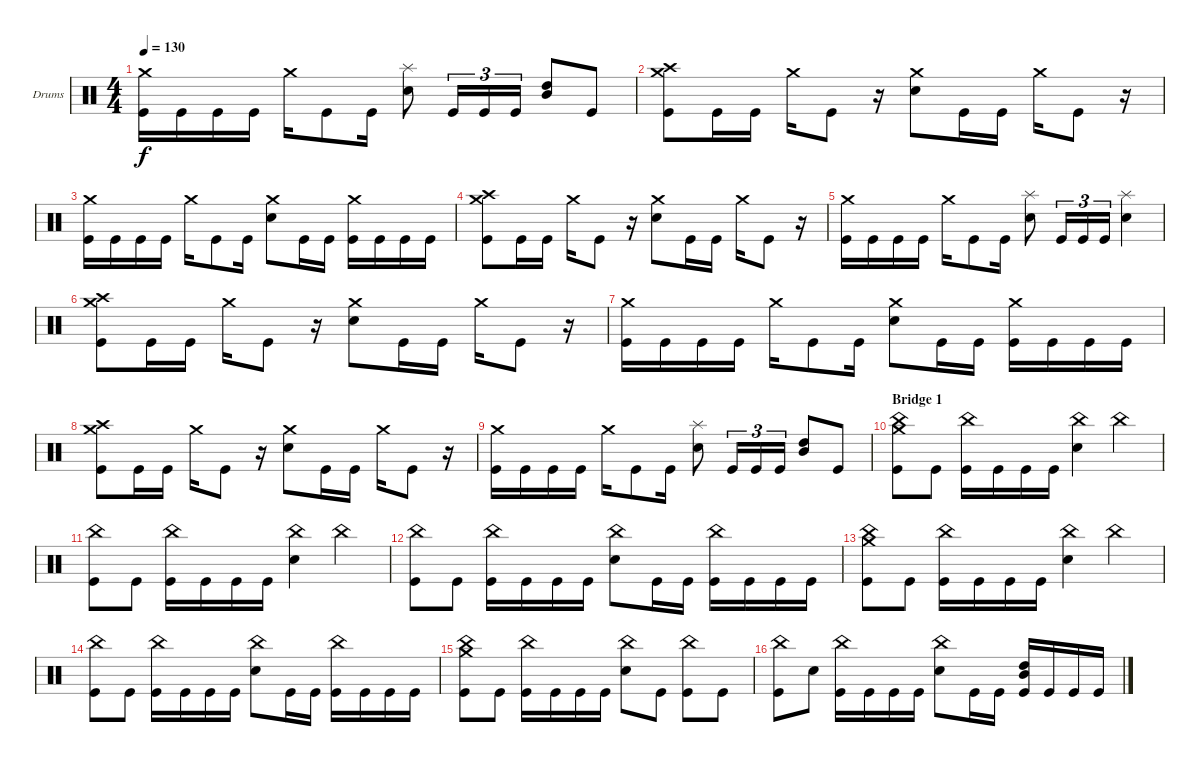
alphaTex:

\bracketExtendMode groupsimilarinstruments
\firstSystemTrackNameOrientation horizontal
\otherSystemsTrackNameOrientation horizontal
\track ("Drumkit" "Drums") {instrument percussion}
\staff {score}
\articulation defaults
\ts (4 4)
\tempo 130
\clef neutral
\ks c
("Kick (hit)" "Crash medium (hit)").16{dy f} "Kick (hit)".16 "Kick (hit)".16 "Kick (hit)".16 "Crash medium (hit)".16 "Kick (hit)".8 "Kick (hit)".16 ("Snare (hit) 2" "Splash (hit)").8 "Kick (hit)".16{tu (3 2)} "Kick (hit)".16{tu (3 2)} "Kick (hit)".16{tu (3 2)} ("High Tom (hit)" "Mid Tom (hit)").8 "Kick (hit)".8 |
("Kick (hit)" "Crash high (hit)" "Crash medium (hit)").8 "Kick (hit)".16 "Kick (hit)".16 "Crash medium (hit)".16 "Kick (hit)".8 r.16 ("Crash medium (hit)" "Snare (hit) 2").8 "Kick (hit)".16 "Kick (hit)".16 "Crash medium (hit)".16 "Kick (hit)".8 r.16 |
("Kick (hit)" "Crash medium (hit)").16 "Kick (hit)".16 "Kick (hit)".16 "Kick (hit)".16 "Crash medium (hit)".16 "Kick (hit)".8 "Kick (hit)".16 ("Snare (hit) 2" "Crash medium (hit)").8 "Kick (hit)".16 "Kick (hit)".16 ("Kick (hit)" "Crash medium (hit)").16 "Kick (hit)".16 "Kick (hit)".16 "Kick (hit)".16 |
("Kick (hit)" "Crash high (hit)" "Crash medium (hit)").8 "Kick (hit)".16 "Kick (hit)".16 "Crash medium (hit)".16 "Kick (hit)".8 r.16 ("Crash medium (hit)" "Snare (hit) 2").8 "Kick (hit)".16 "Kick (hit)".16 "Crash medium (hit)".16 "Kick (hit)".8 r.16 |
("Kick (hit)" "Crash medium (hit)").16 "Kick (hit)".16 "Kick (hit)".16 "Kick (hit)".16 "Crash medium (hit)".16 "Kick (hit)".8 "Kick (hit)".16 ("Snare (hit) 2" "Splash (hit)").8 "Kick (hit)".16{tu (3 2)} "Kick (hit)".16{tu (3 2)} "Kick (hit)".16{tu (3 2)} ("Snare (hit) 2" "Splash (hit)").4 |
("Kick (hit)" "Crash high (hit)" "Crash medium (hit)").8 "Kick (hit)".16 "Kick (hit)".16 "Crash medium (hit)".16 "Kick (hit)".8 r.16 ("Crash medium (hit)" "Snare (hit) 2").8 "Kick (hit)".16 "Kick (hit)".16 "Crash medium (hit)".16 "Kick (hit)".8 r.16 |
("Kick (hit)" "Crash medium (hit)").16 "Kick (hit)".16 "Kick (hit)".16 "Kick (hit)".16 "Crash medium (hit)".16 "Kick (hit)".8 "Kick (hit)".16 ("Snare (hit) 2" "Crash medium (hit)").8 "Kick (hit)".16 "Kick (hit)".16 ("Kick (hit)" "Crash medium (hit)").16 "Kick (hit)".16 "Kick (hit)".16 "Kick (hit)".16 |
("Kick (hit)" "Crash high (hit)" "Crash medium (hit)").8 "Kick (hit)".16 "Kick (hit)".16 "Crash medium (hit)".16 "Kick (hit)".8 r.16 ("Crash medium (hit)" "Snare (hit) 2").8 "Kick (hit)".16 "Kick (hit)".16 "Crash medium (hit)".16 "Kick (hit)".8 r.16 |
("Kick (hit)" "Crash medium (hit)").16 "Kick (hit)".16 "Kick (hit)".16 "Kick (hit)".16 "Crash medium (hit)".16 "Kick (hit)".8 "Kick (hit)".16 ("Snare (hit) 2" "Splash (hit)").8 "Kick (hit)".16{tu (3 2)} "Kick (hit)".16{tu (3 2)} "Kick (hit)".16{tu (3 2)} ("High Tom (hit)" "Mid Tom (hit)").8 "Kick (hit)".8 |
\section ("" "Bridge 1")
("Crash medium (hit)" "China (hit)" "Kick (hit)").8 "Kick (hit)".8 ("Kick (hit)" "China (hit)").16 "Kick (hit)".16 "Kick (hit)".16 "Kick (hit)".16 ("China (hit)" "Snare (hit) 2").4 "China (hit)".4 |
("China (hit)" "Kick (hit)").8 "Kick (hit)".8 ("Kick (hit)" "China (hit)").16 "Kick (hit)".16 "Kick (hit)".16 "Kick (hit)".16 ("China (hit)" "Snare (hit) 2").4 "China (hit)".4 |
("China (hit)" "Kick (hit)").8 "Kick (hit)".8 ("Kick (hit)" "China (hit)").16 "Kick (hit)".16 "Kick (hit)".16 "Kick (hit)".16 ("China (hit)" "Snare (hit) 2").8 "Kick (hit)".16 "Kick (hit)".16 ("China (hit)" "Kick (hit)").16 "Kick (hit)".16 "Kick (hit)".16 "Kick (hit)".16 |
("Crash medium (hit)" "China (hit)" "Kick (hit)").8 "Kick (hit)".8 ("Kick (hit)" "China (hit)").16 "Kick (hit)".16 "Kick (hit)".16 "Kick (hit)".16 ("China (hit)" "Snare (hit) 2").4 "China (hit)".4 |
("China (hit)" "Kick (hit)").8 "Kick (hit)".8 ("Kick (hit)" "China (hit)").16 "Kick (hit)".16 "Kick (hit)".16 "Kick (hit)".16 ("China (hit)" "Snare (hit) 2").8 "Kick (hit)".16 "Kick (hit)".16 ("China (hit)" "Kick (hit)").16 "Kick (hit)".16 "Kick (hit)".16 "Kick (hit)".16 |
("Crash medium (hit)" "China (hit)" "Kick (hit)").8 "Kick (hit)".8 ("Kick (hit)" "China (hit)").16 "Kick (hit)".16 "Kick (hit)".16 "Kick (hit)".16 ("China (hit)" "Snare (hit) 2").8 "Kick (hit)".8 ("Kick (hit)" "China (hit)").8 "Kick (hit)".8 |
("China (hit)" "Kick (hit)").8 "Snare (hit) 2".8 ("Kick (hit)" "China (hit)").16 "Kick (hit)".16 "Kick (hit)".16 "Kick (hit)".16 ("China (hit)" "Snare (hit) 2").8 "Kick (hit)".16 "Kick (hit)".16 ("Kick (hit)" "Mid Tom (hit)" "High Tom (hit)").16 "Kick (hit)".16 "Kick (hit)".16 "Kick (hit)".16
